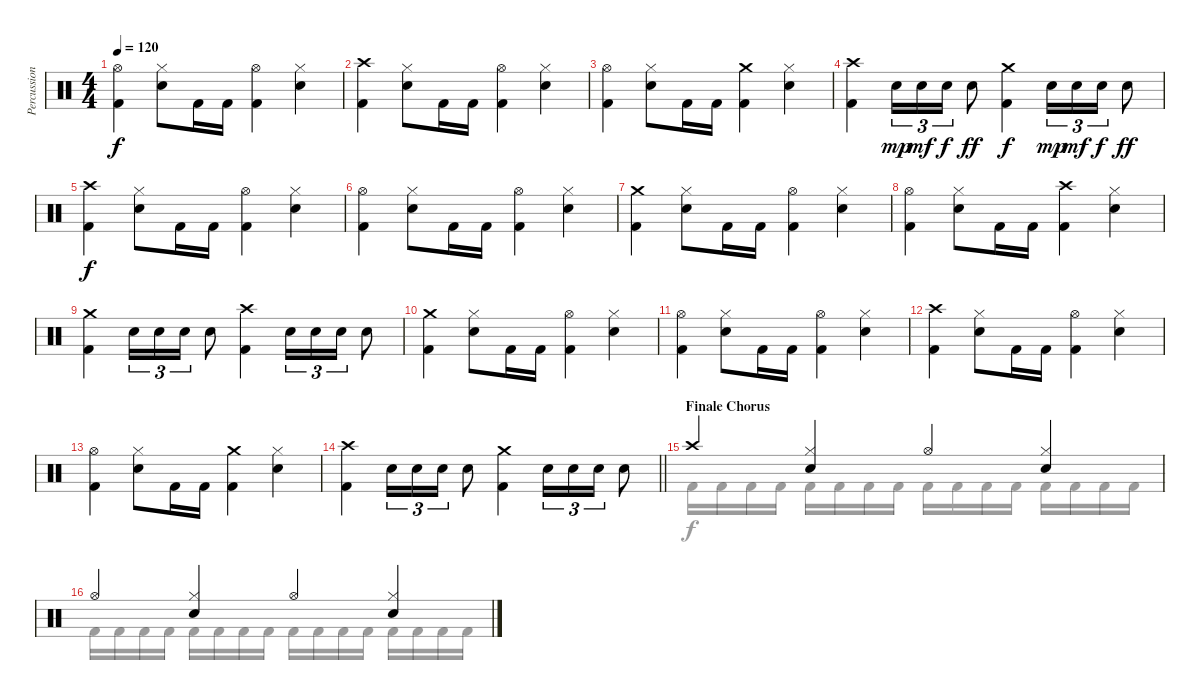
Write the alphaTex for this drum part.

\track ("Percussion" "Percussion") {instrument percussion}
\staff {score}
\articulation defaults
\voice
\ts (4 4)
\tempo 120
\clef neutral
\ks c
("Hi-Hat (open)" "Kick (hit) 2").4{dy f} ("Hi-Hat (closed)" "Electric Snare (hit)").8 "Kick (hit) 2".16 "Kick (hit) 2".16 ("Hi-Hat (open)" "Kick (hit) 2").4 ("Hi-Hat (closed)" "Electric Snare (hit)").4 |
("Crash high (hit)" "Kick (hit) 2").4 ("Hi-Hat (closed)" "Electric Snare (hit)").8 "Kick (hit) 2".16 "Kick (hit) 2".16 ("Hi-Hat (open)" "Kick (hit) 2").4 ("Hi-Hat (closed)" "Electric Snare (hit)").4 |
("Hi-Hat (open)" "Kick (hit) 2").4 ("Hi-Hat (closed)" "Electric Snare (hit)").8 "Kick (hit) 2".16 "Kick (hit) 2".16 ("Crash medium (hit)" "Kick (hit) 2").4 ("Hi-Hat (closed)" "Electric Snare (hit)").4 |
("Crash high (hit)" "Kick (hit) 2").4 "Electric Snare (hit)".16{tu (3 2) dy mp} "Electric Snare (hit)".16{tu (3 2) dy mf} "Electric Snare (hit)".16{tu (3 2) dy f} "Electric Snare (hit)".8{dy ff} ("Crash medium (hit)" "Kick (hit) 2").4{dy f} "Electric Snare (hit)".16{tu (3 2) dy mp} "Electric Snare (hit)".16{tu (3 2) dy mf} "Electric Snare (hit)".16{tu (3 2) dy f} "Electric Snare (hit)".8{dy ff} |
("Crash high (hit)" "Kick (hit) 2").4{dy f} ("Hi-Hat (closed)" "Electric Snare (hit)").8 "Kick (hit) 2".16 "Kick (hit) 2".16 ("Hi-Hat (open)" "Kick (hit) 2").4 ("Hi-Hat (closed)" "Electric Snare (hit)").4 |
("Hi-Hat (open)" "Kick (hit) 2").4 ("Hi-Hat (closed)" "Electric Snare (hit)").8 "Kick (hit) 2".16 "Kick (hit) 2".16 ("Hi-Hat (open)" "Kick (hit) 2").4 ("Hi-Hat (closed)" "Electric Snare (hit)").4 |
("Crash medium (hit)" "Kick (hit) 2").4 ("Hi-Hat (closed)" "Electric Snare (hit)").8 "Kick (hit) 2".16 "Kick (hit) 2".16 ("Hi-Hat (open)" "Kick (hit) 2").4 ("Hi-Hat (closed)" "Electric Snare (hit)").4 |
("Hi-Hat (open)" "Kick (hit) 2").4 ("Hi-Hat (closed)" "Electric Snare (hit)").8 "Kick (hit) 2".16 "Kick (hit) 2".16 ("Crash high (hit)" "Kick (hit) 2").4 ("Hi-Hat (closed)" "Electric Snare (hit)").4 |
("Crash medium (hit)" "Kick (hit) 2").4 "Electric Snare (hit)".16{tu (3 2)} "Electric Snare (hit)".16{tu (3 2)} "Electric Snare (hit)".16{tu (3 2)} "Electric Snare (hit)".8 ("Crash high (hit)" "Kick (hit) 2").4 "Electric Snare (hit)".16{tu (3 2)} "Electric Snare (hit)".16{tu (3 2)} "Electric Snare (hit)".16{tu (3 2)} "Electric Snare (hit)".8 |
("Crash medium (hit)" "Kick (hit) 2").4 ("Hi-Hat (closed)" "Electric Snare (hit)").8 "Kick (hit) 2".16 "Kick (hit) 2".16 ("Hi-Hat (open)" "Kick (hit) 2").4 ("Hi-Hat (closed)" "Electric Snare (hit)").4 |
("Hi-Hat (open)" "Kick (hit) 2").4 ("Hi-Hat (closed)" "Electric Snare (hit)").8 "Kick (hit) 2".16 "Kick (hit) 2".16 ("Hi-Hat (open)" "Kick (hit) 2").4 ("Hi-Hat (closed)" "Electric Snare (hit)").4 |
("Crash high (hit)" "Kick (hit) 2").4 ("Hi-Hat (closed)" "Electric Snare (hit)").8 "Kick (hit) 2".16 "Kick (hit) 2".16 ("Hi-Hat (open)" "Kick (hit) 2").4 ("Hi-Hat (closed)" "Electric Snare (hit)").4 |
("Hi-Hat (open)" "Kick (hit) 2").4 ("Hi-Hat (closed)" "Electric Snare (hit)").8 "Kick (hit) 2".16 "Kick (hit) 2".16 ("Crash medium (hit)" "Kick (hit) 2").4 ("Hi-Hat (closed)" "Electric Snare (hit)").4 |
\barLineRight lightlight
("Crash high (hit)" "Kick (hit) 2").4 "Electric Snare (hit)".16{tu (3 2)} "Electric Snare (hit)".16{tu (3 2)} "Electric Snare (hit)".16{tu (3 2)} "Electric Snare (hit)".8 ("Crash medium (hit)" "Kick (hit) 2").4 "Electric Snare (hit)".16{tu (3 2)} "Electric Snare (hit)".16{tu (3 2)} "Electric Snare (hit)".16{tu (3 2)} "Electric Snare (hit)".8 |
\section ("" "Finale Chorus")
"Crash high (hit)".4 ("Hi-Hat (closed)" "Electric Snare (hit)").4 "Hi-Hat (open)".4 ("Hi-Hat (closed)" "Electric Snare (hit)").4 |
"Hi-Hat (open)".4 ("Hi-Hat (closed)" "Electric Snare (hit)").4 "Hi-Hat (open)".4 ("Hi-Hat (closed)" "Electric Snare (hit)").4
\voice
\clef neutral
\ottava regular
\simile none
\ks c
|
|
|
|
|
|
|
|
|
|
|
|
|
\barLineRight lightlight
|
"Kick (hit) 2".16 "Kick (hit) 2".16 "Kick (hit) 2".16 "Kick (hit) 2".16 "Kick (hit) 2".16 "Kick (hit) 2".16 "Kick (hit) 2".16 "Kick (hit) 2".16 "Kick (hit) 2".16 "Kick (hit) 2".16 "Kick (hit) 2".16 "Kick (hit) 2".16 "Kick (hit) 2".16 "Kick (hit) 2".16 "Kick (hit) 2".16 "Kick (hit) 2".16 |
"Kick (hit) 2".16 "Kick (hit) 2".16 "Kick (hit) 2".16 "Kick (hit) 2".16 "Kick (hit) 2".16 "Kick (hit) 2".16 "Kick (hit) 2".16 "Kick (hit) 2".16 "Kick (hit) 2".16 "Kick (hit) 2".16 "Kick (hit) 2".16 "Kick (hit) 2".16 "Kick (hit) 2".16 "Kick (hit) 2".16 "Kick (hit) 2".16 "Kick (hit) 2".16
